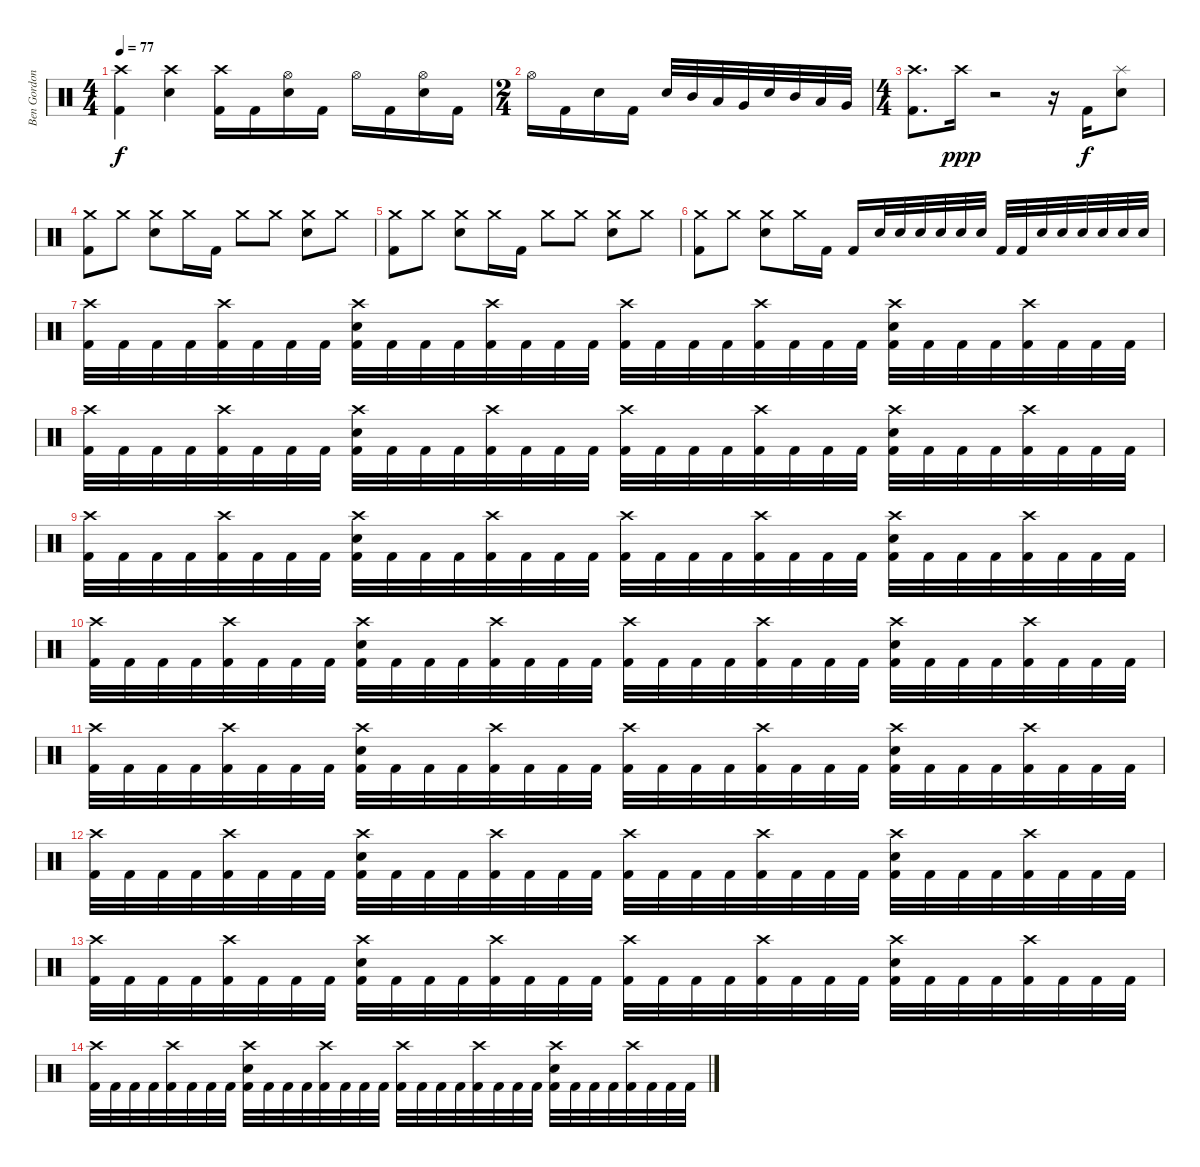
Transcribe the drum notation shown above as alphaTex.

\track ("Ben Gordon" "Ben Gordon") {instrument percussion}
\staff {score}
\articulation defaults
\ts (4 4)
\tempo 77
\clef neutral
\ks c
("Crash high (hit)" "Kick (hit) 2").4{dy f} ("Crash high (hit)" "Electric Snare (hit)").4 ("Crash high (hit)" "Kick (hit) 2").16 "Kick (hit) 2".16 ("Hi-Hat (open)" "Electric Snare (hit)").16 "Kick (hit) 2".16 "Hi-Hat (open)".16 "Kick (hit) 2".16 ("Hi-Hat (open)" "Electric Snare (hit)").16 "Kick (hit) 2".16 |
\ts (2 4)
"Hi-Hat (open)".16 "Kick (hit) 2".16 "Electric Snare (hit)".16 "Kick (hit) 2".16 "Electric Snare (hit)".32 "Mid Tom (hit)".32 "Low Tom (hit)".32 "Very Low Tom (hit)".32 "Electric Snare (hit)".32 "Mid Tom (hit)".32 "Low Tom (hit)".32 "Very Low Tom (hit)".32 |
\ts (4 4)
("Crash high (hit)" "Kick (hit) 2").8{d} "Crash high (hit)".16{dy ppp} r.2 r.16 "Kick (hit) 2".16{dy f} ("Splash (hit)" "Electric Snare (hit)").8 |
("Crash medium (hit)" "Kick (hit) 2").8 "Crash medium (hit)".8 ("Crash medium (hit)" "Electric Snare (hit)").8 "Crash medium (hit)".16 "Kick (hit) 2".16 "Crash medium (hit)".8 "Crash medium (hit)".8 ("Crash medium (hit)" "Electric Snare (hit)").8 "Crash medium (hit)".8 |
("Crash medium (hit)" "Kick (hit) 2").8 "Crash medium (hit)".8 ("Crash medium (hit)" "Electric Snare (hit)").8 "Crash medium (hit)".16 "Kick (hit) 2".16 "Crash medium (hit)".8 "Crash medium (hit)".8 ("Crash medium (hit)" "Electric Snare (hit)").8 "Crash medium (hit)".8 |
("Crash medium (hit)" "Kick (hit) 2").8 "Crash medium (hit)".8 ("Crash medium (hit)" "Electric Snare (hit)").8 "Crash medium (hit)".16 "Kick (hit) 2".16 "Kick (hit) 2".16 "Electric Snare (hit)".32 "Electric Snare (hit)".32 "Electric Snare (hit)".32 "Electric Snare (hit)".32 "Electric Snare (hit)".32 "Electric Snare (hit)".32 "Kick (hit) 2".32 "Kick (hit) 2".32 "Electric Snare (hit)".32 "Electric Snare (hit)".32 "Electric Snare (hit)".32 "Electric Snare (hit)".32 "Electric Snare (hit)".32 "Electric Snare (hit)".32 |
("Crash high (hit)" "Kick (hit) 2").32 "Kick (hit) 2".32 "Kick (hit) 2".32 "Kick (hit) 2".32 ("Crash high (hit)" "Kick (hit) 2").32 "Kick (hit) 2".32 "Kick (hit) 2".32 "Kick (hit) 2".32 ("Crash high (hit)" "Electric Snare (hit)" "Kick (hit) 2").32 "Kick (hit) 2".32 "Kick (hit) 2".32 "Kick (hit) 2".32 ("Crash high (hit)" "Kick (hit) 2").32 "Kick (hit) 2".32 "Kick (hit) 2".32 "Kick (hit) 2".32 ("Crash high (hit)" "Kick (hit) 2").32 "Kick (hit) 2".32 "Kick (hit) 2".32 "Kick (hit) 2".32 ("Crash high (hit)" "Kick (hit) 2").32 "Kick (hit) 2".32 "Kick (hit) 2".32 "Kick (hit) 2".32 ("Crash high (hit)" "Electric Snare (hit)" "Kick (hit) 2").32 "Kick (hit) 2".32 "Kick (hit) 2".32 "Kick (hit) 2".32 ("Crash high (hit)" "Kick (hit) 2").32 "Kick (hit) 2".32 "Kick (hit) 2".32 "Kick (hit) 2".32 |
("Crash high (hit)" "Kick (hit) 2").32 "Kick (hit) 2".32 "Kick (hit) 2".32 "Kick (hit) 2".32 ("Crash high (hit)" "Kick (hit) 2").32 "Kick (hit) 2".32 "Kick (hit) 2".32 "Kick (hit) 2".32 ("Crash high (hit)" "Electric Snare (hit)" "Kick (hit) 2").32 "Kick (hit) 2".32 "Kick (hit) 2".32 "Kick (hit) 2".32 ("Crash high (hit)" "Kick (hit) 2").32 "Kick (hit) 2".32 "Kick (hit) 2".32 "Kick (hit) 2".32 ("Crash high (hit)" "Kick (hit) 2").32 "Kick (hit) 2".32 "Kick (hit) 2".32 "Kick (hit) 2".32 ("Crash high (hit)" "Kick (hit) 2").32 "Kick (hit) 2".32 "Kick (hit) 2".32 "Kick (hit) 2".32 ("Crash high (hit)" "Electric Snare (hit)" "Kick (hit) 2").32 "Kick (hit) 2".32 "Kick (hit) 2".32 "Kick (hit) 2".32 ("Crash high (hit)" "Kick (hit) 2").32 "Kick (hit) 2".32 "Kick (hit) 2".32 "Kick (hit) 2".32 |
("Crash high (hit)" "Kick (hit) 2").32 "Kick (hit) 2".32 "Kick (hit) 2".32 "Kick (hit) 2".32 ("Crash high (hit)" "Kick (hit) 2").32 "Kick (hit) 2".32 "Kick (hit) 2".32 "Kick (hit) 2".32 ("Crash high (hit)" "Electric Snare (hit)" "Kick (hit) 2").32 "Kick (hit) 2".32 "Kick (hit) 2".32 "Kick (hit) 2".32 ("Crash high (hit)" "Kick (hit) 2").32 "Kick (hit) 2".32 "Kick (hit) 2".32 "Kick (hit) 2".32 ("Crash high (hit)" "Kick (hit) 2").32 "Kick (hit) 2".32 "Kick (hit) 2".32 "Kick (hit) 2".32 ("Crash high (hit)" "Kick (hit) 2").32 "Kick (hit) 2".32 "Kick (hit) 2".32 "Kick (hit) 2".32 ("Crash high (hit)" "Electric Snare (hit)" "Kick (hit) 2").32 "Kick (hit) 2".32 "Kick (hit) 2".32 "Kick (hit) 2".32 ("Crash high (hit)" "Kick (hit) 2").32 "Kick (hit) 2".32 "Kick (hit) 2".32 "Kick (hit) 2".32 |
("Crash high (hit)" "Kick (hit) 2").32 "Kick (hit) 2".32 "Kick (hit) 2".32 "Kick (hit) 2".32 ("Crash high (hit)" "Kick (hit) 2").32 "Kick (hit) 2".32 "Kick (hit) 2".32 "Kick (hit) 2".32 ("Crash high (hit)" "Electric Snare (hit)" "Kick (hit) 2").32 "Kick (hit) 2".32 "Kick (hit) 2".32 "Kick (hit) 2".32 ("Crash high (hit)" "Kick (hit) 2").32 "Kick (hit) 2".32 "Kick (hit) 2".32 "Kick (hit) 2".32 ("Crash high (hit)" "Kick (hit) 2").32 "Kick (hit) 2".32 "Kick (hit) 2".32 "Kick (hit) 2".32 ("Crash high (hit)" "Kick (hit) 2").32 "Kick (hit) 2".32 "Kick (hit) 2".32 "Kick (hit) 2".32 ("Crash high (hit)" "Electric Snare (hit)" "Kick (hit) 2").32 "Kick (hit) 2".32 "Kick (hit) 2".32 "Kick (hit) 2".32 ("Crash high (hit)" "Kick (hit) 2").32 "Kick (hit) 2".32 "Kick (hit) 2".32 "Kick (hit) 2".32 |
("Crash high (hit)" "Kick (hit) 2").32{volume 0} "Kick (hit) 2".32 "Kick (hit) 2".32 "Kick (hit) 2".32 ("Crash high (hit)" "Kick (hit) 2").32 "Kick (hit) 2".32 "Kick (hit) 2".32 "Kick (hit) 2".32 ("Crash high (hit)" "Electric Snare (hit)" "Kick (hit) 2").32 "Kick (hit) 2".32 "Kick (hit) 2".32 "Kick (hit) 2".32 ("Crash high (hit)" "Kick (hit) 2").32 "Kick (hit) 2".32 "Kick (hit) 2".32 "Kick (hit) 2".32 ("Crash high (hit)" "Kick (hit) 2").32 "Kick (hit) 2".32 "Kick (hit) 2".32 "Kick (hit) 2".32 ("Crash high (hit)" "Kick (hit) 2").32 "Kick (hit) 2".32 "Kick (hit) 2".32 "Kick (hit) 2".32 ("Crash high (hit)" "Electric Snare (hit)" "Kick (hit) 2").32 "Kick (hit) 2".32 "Kick (hit) 2".32 "Kick (hit) 2".32 ("Crash high (hit)" "Kick (hit) 2").32 "Kick (hit) 2".32 "Kick (hit) 2".32 "Kick (hit) 2".32 |
("Crash high (hit)" "Kick (hit) 2").32 "Kick (hit) 2".32 "Kick (hit) 2".32 "Kick (hit) 2".32 ("Crash high (hit)" "Kick (hit) 2").32 "Kick (hit) 2".32 "Kick (hit) 2".32 "Kick (hit) 2".32 ("Crash high (hit)" "Electric Snare (hit)" "Kick (hit) 2").32 "Kick (hit) 2".32 "Kick (hit) 2".32 "Kick (hit) 2".32 ("Crash high (hit)" "Kick (hit) 2").32 "Kick (hit) 2".32 "Kick (hit) 2".32 "Kick (hit) 2".32 ("Crash high (hit)" "Kick (hit) 2").32 "Kick (hit) 2".32 "Kick (hit) 2".32 "Kick (hit) 2".32 ("Crash high (hit)" "Kick (hit) 2").32 "Kick (hit) 2".32 "Kick (hit) 2".32 "Kick (hit) 2".32 ("Crash high (hit)" "Electric Snare (hit)" "Kick (hit) 2").32 "Kick (hit) 2".32 "Kick (hit) 2".32 "Kick (hit) 2".32 ("Crash high (hit)" "Kick (hit) 2").32 "Kick (hit) 2".32 "Kick (hit) 2".32 "Kick (hit) 2".32 |
("Crash high (hit)" "Kick (hit) 2").32 "Kick (hit) 2".32 "Kick (hit) 2".32 "Kick (hit) 2".32 ("Crash high (hit)" "Kick (hit) 2").32 "Kick (hit) 2".32 "Kick (hit) 2".32 "Kick (hit) 2".32 ("Crash high (hit)" "Electric Snare (hit)" "Kick (hit) 2").32 "Kick (hit) 2".32 "Kick (hit) 2".32 "Kick (hit) 2".32 ("Crash high (hit)" "Kick (hit) 2").32 "Kick (hit) 2".32 "Kick (hit) 2".32 "Kick (hit) 2".32 ("Crash high (hit)" "Kick (hit) 2").32 "Kick (hit) 2".32 "Kick (hit) 2".32 "Kick (hit) 2".32 ("Crash high (hit)" "Kick (hit) 2").32 "Kick (hit) 2".32 "Kick (hit) 2".32 "Kick (hit) 2".32 ("Crash high (hit)" "Electric Snare (hit)" "Kick (hit) 2").32 "Kick (hit) 2".32 "Kick (hit) 2".32 "Kick (hit) 2".32 ("Crash high (hit)" "Kick (hit) 2").32 "Kick (hit) 2".32 "Kick (hit) 2".32 "Kick (hit) 2".32 |
("Crash high (hit)" "Kick (hit) 2").32 "Kick (hit) 2".32 "Kick (hit) 2".32 "Kick (hit) 2".32 ("Crash high (hit)" "Kick (hit) 2").32 "Kick (hit) 2".32 "Kick (hit) 2".32 "Kick (hit) 2".32 ("Crash high (hit)" "Electric Snare (hit)" "Kick (hit) 2").32 "Kick (hit) 2".32 "Kick (hit) 2".32 "Kick (hit) 2".32 ("Crash high (hit)" "Kick (hit) 2").32 "Kick (hit) 2".32 "Kick (hit) 2".32 "Kick (hit) 2".32 ("Crash high (hit)" "Kick (hit) 2").32 "Kick (hit) 2".32 "Kick (hit) 2".32 "Kick (hit) 2".32 ("Crash high (hit)" "Kick (hit) 2").32 "Kick (hit) 2".32 "Kick (hit) 2".32 "Kick (hit) 2".32 ("Crash high (hit)" "Electric Snare (hit)" "Kick (hit) 2").32 "Kick (hit) 2".32 "Kick (hit) 2".32 "Kick (hit) 2".32 ("Crash high (hit)" "Kick (hit) 2").32 "Kick (hit) 2".32 "Kick (hit) 2".32 "Kick (hit) 2".32
